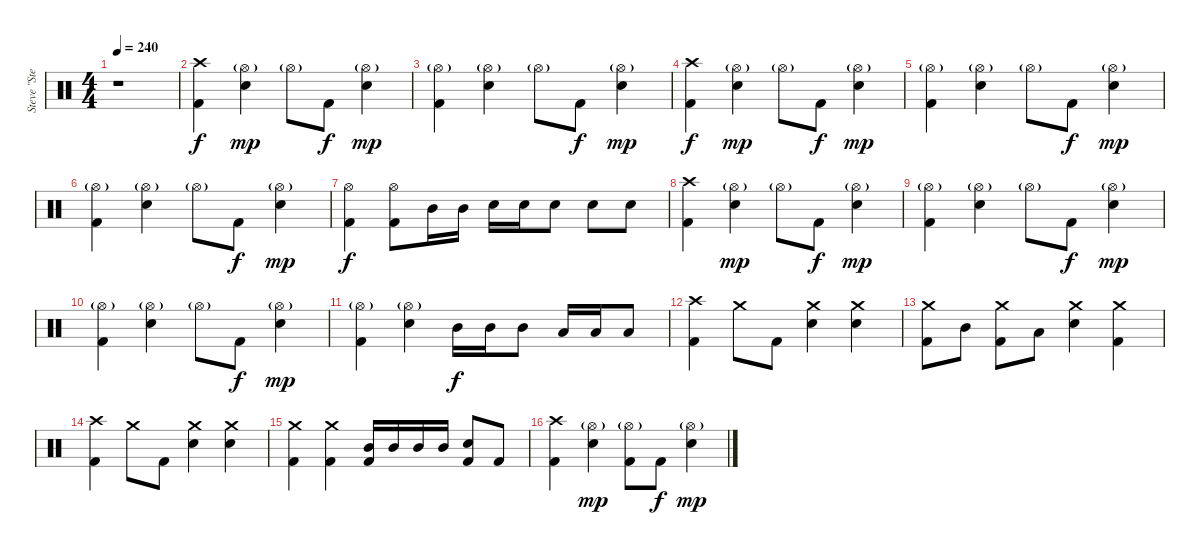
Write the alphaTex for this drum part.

\track ("Steve \"Stevo32\" Jocz " "Steve \"Ste") {instrument percussion}
\staff {score}
\articulation defaults
\ts (4 4)
\tempo 240
\clef neutral
\ks c
r.1{dy f} |
("Crash high (hit)" "Kick (hit) 2").4 ("Hi-Hat (open)"{g} "Electric Snare (hit)").4{dy mp} "Hi-Hat (open)"{g}.8 "Kick (hit) 2".8{dy f} ("Hi-Hat (open)"{g} "Electric Snare (hit)").4{dy mp} |
("Hi-Hat (open)"{g} "Kick (hit) 2").4 ("Hi-Hat (open)"{g} "Electric Snare (hit)").4 "Hi-Hat (open)"{g}.8 "Kick (hit) 2".8{dy f} ("Hi-Hat (open)"{g} "Electric Snare (hit)").4{dy mp} |
("Crash high (hit)" "Kick (hit) 2").4{dy f} ("Hi-Hat (open)"{g} "Electric Snare (hit)").4{dy mp} "Hi-Hat (open)"{g}.8 "Kick (hit) 2".8{dy f} ("Hi-Hat (open)"{g} "Electric Snare (hit)").4{dy mp} |
("Hi-Hat (open)"{g} "Kick (hit) 2").4 ("Hi-Hat (open)"{g} "Electric Snare (hit)").4 "Hi-Hat (open)"{g}.8 "Kick (hit) 2".8{dy f} ("Hi-Hat (open)"{g} "Electric Snare (hit)").4{dy mp} |
("Hi-Hat (open)"{g} "Kick (hit) 2").4 ("Hi-Hat (open)"{g} "Electric Snare (hit)").4 "Hi-Hat (open)"{g}.8 "Kick (hit) 2".8{dy f} ("Hi-Hat (open)"{g} "Electric Snare (hit)").4{dy mp} |
("Hi-Hat (open)" "Kick (hit) 2").4{dy f} ("Hi-Hat (open)" "Kick (hit) 2").8 "Mid Tom (hit)".16 "Mid Tom (hit)".16 "Electric Snare (hit)".16 "Electric Snare (hit)".16 "Electric Snare (hit)".8 "Electric Snare (hit)".8 "Electric Snare (hit)".8 |
("Crash high (hit)" "Kick (hit) 2").4 ("Hi-Hat (open)"{g} "Electric Snare (hit)").4{dy mp} "Hi-Hat (open)"{g}.8 "Kick (hit) 2".8{dy f} ("Hi-Hat (open)"{g} "Electric Snare (hit)").4{dy mp} |
("Hi-Hat (open)"{g} "Kick (hit) 2").4 ("Hi-Hat (open)"{g} "Electric Snare (hit)").4 "Hi-Hat (open)"{g}.8 "Kick (hit) 2".8{dy f} ("Hi-Hat (open)"{g} "Electric Snare (hit)").4{dy mp} |
("Hi-Hat (open)"{g} "Kick (hit) 2").4 ("Hi-Hat (open)"{g} "Electric Snare (hit)").4 "Hi-Hat (open)"{g}.8 "Kick (hit) 2".8{dy f} ("Hi-Hat (open)"{g} "Electric Snare (hit)").4{dy mp} |
("Hi-Hat (open)"{g} "Kick (hit) 2").4 ("Hi-Hat (open)"{g} "Electric Snare (hit)").4 "Mid Tom (hit)".16{dy f} "Mid Tom (hit)".16 "Mid Tom (hit)".8 "Low Tom (hit)".16 "Low Tom (hit)".16 "Low Tom (hit)".8 |
("Crash high (hit)" "Kick (hit) 2").4 "Crash medium (hit)".8 "Kick (hit) 2".8 ("Crash medium (hit)" "Electric Snare (hit)").4 ("Crash medium (hit)" "Electric Snare (hit)").4 |
("Crash medium (hit)" "Kick (hit) 2").8 "Mid Tom (hit)".8 ("Crash medium (hit)" "Kick (hit) 2").8 "Low Tom (hit)".8 ("Crash medium (hit)" "Electric Snare (hit)").4 ("Crash medium (hit)" "Kick (hit) 2").4 |
("Crash high (hit)" "Kick (hit) 2").4 "Crash medium (hit)".8 "Kick (hit) 2".8 ("Crash medium (hit)" "Electric Snare (hit)").4 ("Crash medium (hit)" "Electric Snare (hit)").4 |
("Crash medium (hit)" "Kick (hit) 2").4 ("Crash medium (hit)" "Kick (hit) 2").4 ("Mid Tom (hit)" "Kick (hit) 2").16 "Mid Tom (hit)".16 "Mid Tom (hit)".16 "Mid Tom (hit)".16 ("Electric Snare (hit)" "Kick (hit) 2").8 "Kick (hit) 2".8 |
("Crash high (hit)" "Kick (hit) 2").4 ("Hi-Hat (open)"{g} "Electric Snare (hit)").4{dy mp} ("Hi-Hat (open)"{g} "Kick (hit) 2").8 "Kick (hit) 2".8{dy f} ("Hi-Hat (open)"{g} "Electric Snare (hit)").4{dy mp}
